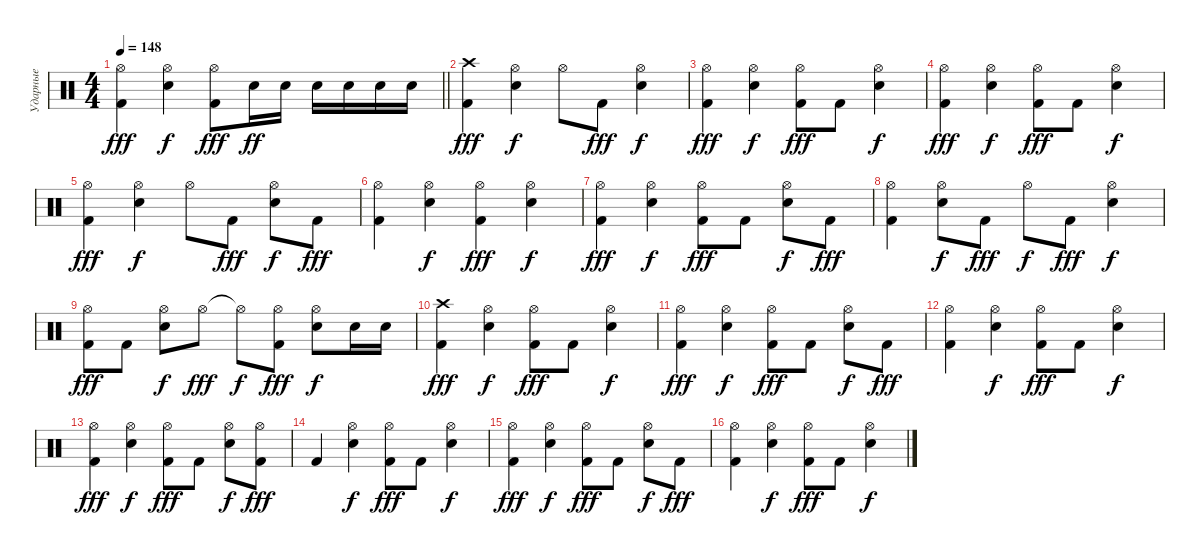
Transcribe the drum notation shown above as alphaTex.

\track ("Ударные" "Ударные") {instrument percussion}
\staff {score}
\articulation defaults
\ts (4 4)
\tempo 148
\clef neutral
\barLineRight lightlight
\ks c
("Kick (hit) 2" "Hi-Hat (open)").4{dy fff} ("Snare (hit) 2" "Hi-Hat (open)").4{dy f} ("Kick (hit) 2" "Hi-Hat (open)").8{dy fff} "Snare (hit) 2".16{dy ff} "Snare (hit) 2".16 "Snare (hit) 2".16 "Snare (hit) 2".16 "Snare (hit) 2".16 "Snare (hit) 2".16 |
("Kick (hit) 2" "Crash high (hit)").4{dy fff} ("Snare (hit) 2" "Hi-Hat (open)").4{dy f} "Hi-Hat (open)".8 "Kick (hit) 2".8{dy fff} ("Snare (hit) 2" "Hi-Hat (open)").4{dy f} |
("Kick (hit) 2" "Hi-Hat (open)").4{dy fff} ("Snare (hit) 2" "Hi-Hat (open)").4{dy f} ("Kick (hit) 2" "Hi-Hat (open)").8{dy fff} "Kick (hit) 2".8 ("Snare (hit) 2" "Hi-Hat (open)").4{dy f} |
("Kick (hit) 2" "Hi-Hat (open)").4{dy fff} ("Snare (hit) 2" "Hi-Hat (open)").4{dy f} ("Kick (hit) 2" "Hi-Hat (open)").8{dy fff} "Kick (hit) 2".8 ("Snare (hit) 2" "Hi-Hat (open)").4{dy f} |
("Kick (hit) 2" "Hi-Hat (open)").4{dy fff} ("Snare (hit) 2" "Hi-Hat (open)").4{dy f} "Hi-Hat (open)".8 "Kick (hit) 2".8{dy fff} ("Snare (hit) 2" "Hi-Hat (open)").8{dy f} "Kick (hit) 2".8{dy fff} |
("Kick (hit) 2" "Hi-Hat (open)").4 ("Snare (hit) 2" "Hi-Hat (open)").4{dy f} ("Kick (hit) 2" "Hi-Hat (open)").4{dy fff} ("Snare (hit) 2" "Hi-Hat (open)").4{dy f} |
("Kick (hit) 2" "Hi-Hat (open)").4{dy fff} ("Snare (hit) 2" "Hi-Hat (open)").4{dy f} ("Kick (hit) 2" "Hi-Hat (open)").8{dy fff} "Kick (hit) 2".8 ("Snare (hit) 2" "Hi-Hat (open)").8{dy f} "Kick (hit) 2".8{dy fff} |
("Kick (hit) 2" "Hi-Hat (open)").4 ("Snare (hit) 2" "Hi-Hat (open)").8{dy f} "Kick (hit) 2".8{dy fff} "Hi-Hat (open)".8{dy f} "Kick (hit) 2".8{dy fff} ("Snare (hit) 2" "Hi-Hat (open)").4{dy f} |
("Kick (hit) 2" "Hi-Hat (open)").8{dy fff} "Kick (hit) 2".8 ("Snare (hit) 2" "Hi-Hat (open)").8{dy f} "Hi-Hat (open)".8{dy fff} "Hi-Hat (open)"{t}.8{dy f} ("Kick (hit) 2" "Hi-Hat (open)").8{dy fff} ("Snare (hit) 2" "Hi-Hat (open)").8{dy f} "Snare (hit) 2".16 "Snare (hit) 2".16 |
("Kick (hit) 2" "Crash high (hit)").4{dy fff} ("Snare (hit) 2" "Hi-Hat (open)").4{dy f} ("Kick (hit) 2" "Hi-Hat (open)").8{dy fff} "Kick (hit) 2".8 ("Snare (hit) 2" "Hi-Hat (open)").4{dy f} |
("Kick (hit) 2" "Hi-Hat (open)").4{dy fff} ("Snare (hit) 2" "Hi-Hat (open)").4{dy f} ("Kick (hit) 2" "Hi-Hat (open)").8{dy fff} "Kick (hit) 2".8 ("Snare (hit) 2" "Hi-Hat (open)").8{dy f} "Kick (hit) 2".8{dy fff} |
("Kick (hit) 2" "Hi-Hat (open)").4 ("Snare (hit) 2" "Hi-Hat (open)").4{dy f} ("Kick (hit) 2" "Hi-Hat (open)").8{dy fff} "Kick (hit) 2".8 ("Snare (hit) 2" "Hi-Hat (open)").4{dy f} |
("Kick (hit) 2" "Hi-Hat (open)").4{dy fff} ("Snare (hit) 2" "Hi-Hat (open)").4{dy f} ("Kick (hit) 2" "Hi-Hat (open)").8{dy fff} "Kick (hit) 2".8 ("Snare (hit) 2" "Hi-Hat (open)").8{dy f} ("Kick (hit) 2" "Hi-Hat (open)").8{dy fff} |
"Kick (hit) 2".4 ("Snare (hit) 2" "Hi-Hat (open)").4{dy f} ("Kick (hit) 2" "Hi-Hat (open)").8{dy fff} "Kick (hit) 2".8 ("Snare (hit) 2" "Hi-Hat (open)").4{dy f} |
("Kick (hit) 2" "Hi-Hat (open)").4{dy fff} ("Snare (hit) 2" "Hi-Hat (open)").4{dy f} ("Kick (hit) 2" "Hi-Hat (open)").8{dy fff} "Kick (hit) 2".8 ("Snare (hit) 2" "Hi-Hat (open)").8{dy f} "Kick (hit) 2".8{dy fff} |
("Kick (hit) 2" "Hi-Hat (open)").4 ("Snare (hit) 2" "Hi-Hat (open)").4{dy f} ("Kick (hit) 2" "Hi-Hat (open)").8{dy fff} "Kick (hit) 2".8 ("Snare (hit) 2" "Hi-Hat (open)").4{dy f}
